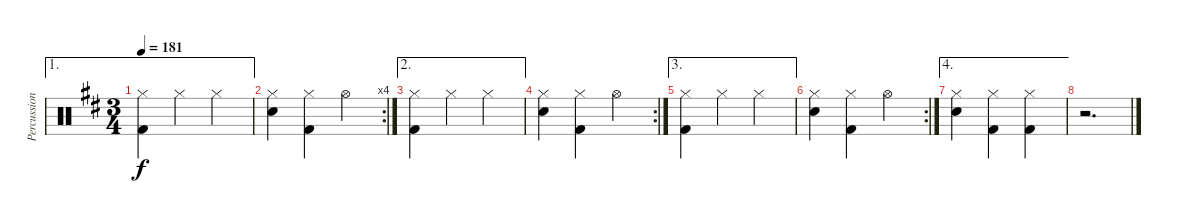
\track ("Percussion" "Percussion") {instrument percussion}
\staff {score}
\articulation defaults
\ae 1
\ts (3 4)
\tempo 181
\clef neutral
\ks d
("Hi-Hat (closed)" "Kick (hit) 2").4{dy f} "Hi-Hat (closed)".4 "Hi-Hat (closed)".4 |
\rc 4
("Hi-Hat (closed)" "Snare (hit) 2").4 ("Hi-Hat (closed)" "Kick (hit) 2").4 "Hi-Hat (open)".4 |
\ae 2
("Hi-Hat (closed)" "Kick (hit) 2").4 "Hi-Hat (closed)".4 "Hi-Hat (closed)".4 |
\rc 2
("Hi-Hat (closed)" "Snare (hit) 2").4 ("Hi-Hat (closed)" "Kick (hit) 2").4 "Hi-Hat (open)".4 |
\ae 3
("Hi-Hat (closed)" "Kick (hit) 2").4 "Hi-Hat (closed)".4 "Hi-Hat (closed)".4 |
\rc 2
("Hi-Hat (closed)" "Snare (hit) 2").4 ("Hi-Hat (closed)" "Kick (hit) 2").4 "Hi-Hat (open)".4 |
\ae 4
("Hi-Hat (closed)" "Snare (hit) 2").4 ("Hi-Hat (closed)" "Kick (hit) 2").4 ("Hi-Hat (closed)" "Kick (hit) 2").4 |
r.2{d}
